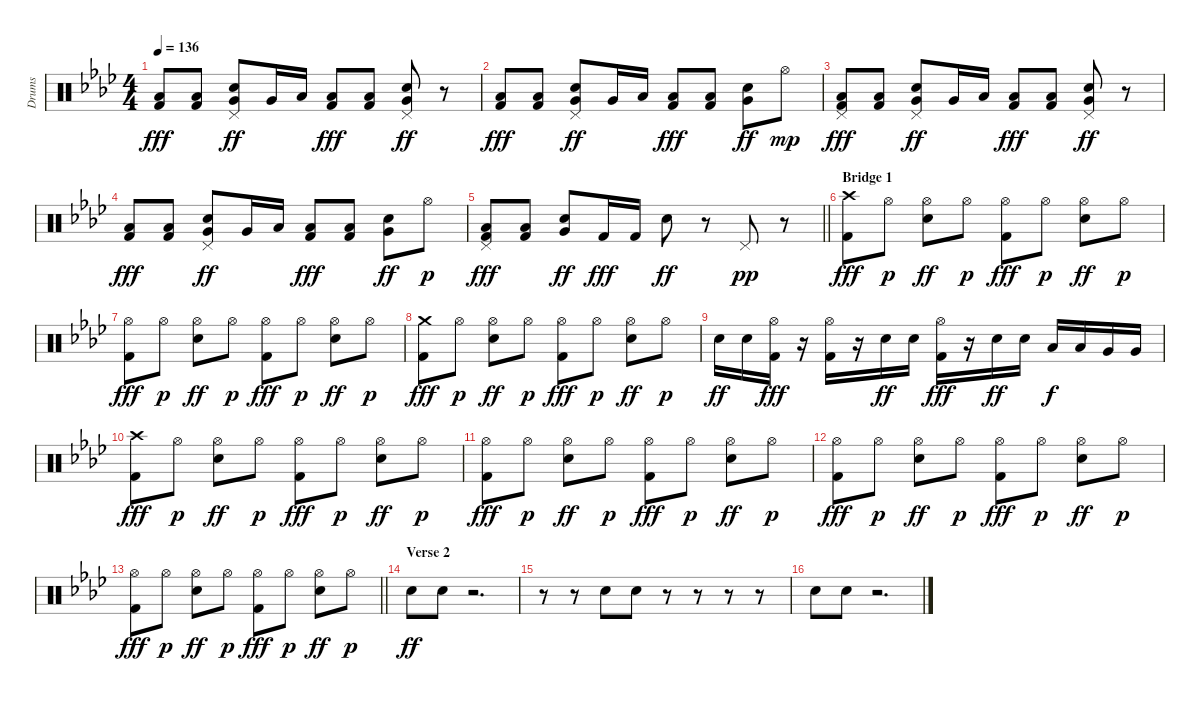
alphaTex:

\track ("Drums" "Drums") {instrument percussion}
\staff {score}
\articulation defaults
\ts (4 4)
\tempo 136
\clef neutral
\ks fminor
("Low Floor Tom (hit)" "Kick (hit) 2").8{dy fff} ("Low Floor Tom (hit)" "Kick (hit) 2").8 ("Pedal Hi-Hat (hit)" "Electric Snare (hit)" "Very Low Tom (hit)").8{dy ff} "Very Low Tom (hit)".16 "Low Tom (hit)".16 ("Low Floor Tom (hit)" "Kick (hit) 2").8{dy fff} ("Low Floor Tom (hit)" "Kick (hit) 2").8 ("Pedal Hi-Hat (hit)" "Electric Snare (hit)" "Very Low Tom (hit)").8{dy ff} r.8 |
("Low Floor Tom (hit)" "Kick (hit) 2").8{dy fff} ("Low Floor Tom (hit)" "Kick (hit) 2").8 ("Pedal Hi-Hat (hit)" "Electric Snare (hit)" "Very Low Tom (hit)").8{dy ff} "Very Low Tom (hit)".16 "Low Tom (hit)".16 ("Low Floor Tom (hit)" "Kick (hit) 2").8{dy fff} ("Low Floor Tom (hit)" "Kick (hit) 2").8 ("Electric Snare (hit)" "Very Low Tom (hit)").8{dy ff} "Hi-Hat (open)".8{dy mp} |
("Pedal Hi-Hat (hit)" "Low Floor Tom (hit)" "Kick (hit) 2").8{dy fff} ("Low Floor Tom (hit)" "Kick (hit) 2").8 ("Pedal Hi-Hat (hit)" "Electric Snare (hit)" "Very Low Tom (hit)").8{dy ff} "Very Low Tom (hit)".16 "Low Tom (hit)".16 ("Low Floor Tom (hit)" "Kick (hit) 2").8{dy fff} ("Low Floor Tom (hit)" "Kick (hit) 2").8 ("Pedal Hi-Hat (hit)" "Electric Snare (hit)" "Very Low Tom (hit)").8{dy ff} r.8 |
("Low Floor Tom (hit)" "Kick (hit) 2").8{dy fff} ("Low Floor Tom (hit)" "Kick (hit) 2").8 ("Pedal Hi-Hat (hit)" "Electric Snare (hit)" "Very Low Tom (hit)").8{dy ff} "Very Low Tom (hit)".16 "Low Tom (hit)".16 ("Low Floor Tom (hit)" "Kick (hit) 2").8{dy fff} ("Low Floor Tom (hit)" "Kick (hit) 2").8 ("Electric Snare (hit)" "Very Low Tom (hit)").8{dy ff} "Hi-Hat (open)".8{dy p} |
\barLineRight lightlight
("Pedal Hi-Hat (hit)" "Low Floor Tom (hit)" "Kick (hit) 2").8{dy fff} ("Low Floor Tom (hit)" "Kick (hit) 2").8 ("Electric Snare (hit)" "Very Low Tom (hit)").8{dy ff} "Kick (hit) 2".16{dy fff} "Kick (hit) 2".16 "Electric Snare (hit)".8{dy ff} r.8 "Pedal Hi-Hat (hit)".8{dy pp} r.8 |
\section ("" "Bridge 1")
("Crash high (hit)" "Kick (hit) 2").8{dy fff} "Hi-Hat (open)".8{dy p} ("Hi-Hat (open)" "Electric Snare (hit)").8{dy ff} "Hi-Hat (open)".8{dy p} ("Hi-Hat (open)" "Kick (hit) 2").8{dy fff} "Hi-Hat (open)".8{dy p} ("Hi-Hat (open)" "Electric Snare (hit)").8{dy ff} "Hi-Hat (open)".8{dy p} |
("Hi-Hat (open)" "Kick (hit) 2").8{dy fff} "Hi-Hat (open)".8{dy p} ("Hi-Hat (open)" "Electric Snare (hit)").8{dy ff} "Hi-Hat (open)".8{dy p} ("Hi-Hat (open)" "Kick (hit) 2").8{dy fff} "Hi-Hat (open)".8{dy p} ("Hi-Hat (open)" "Electric Snare (hit)").8{dy ff} "Hi-Hat (open)".8{dy p} |
("Crash medium (hit)" "Kick (hit) 2").8{dy fff} "Hi-Hat (open)".8{dy p} ("Hi-Hat (open)" "Electric Snare (hit)").8{dy ff} "Hi-Hat (open)".8{dy p} ("Hi-Hat (open)" "Kick (hit) 2").8{dy fff} "Hi-Hat (open)".8{dy p} ("Hi-Hat (open)" "Electric Snare (hit)").8{dy ff} "Hi-Hat (open)".8{dy p} |
"Electric Snare (hit)".16{dy ff} "Electric Snare (hit)".16 ("Hi-Hat (open)" "Kick (hit) 2").16{dy fff} r.16 ("Hi-Hat (open)" "Kick (hit) 2").16 r.16 "Electric Snare (hit)".16{dy ff} "Electric Snare (hit)".16 ("Hi-Hat (open)" "Kick (hit) 2").16{dy fff} r.16 "Electric Snare (hit)".16{dy ff} "Electric Snare (hit)".16 "Low Tom (hit)".16{dy f} "Low Tom (hit)".16 "Very Low Tom (hit)".16 "Very Low Tom (hit)".16 |
("Crash high (hit)" "Kick (hit) 2").8{dy fff} "Hi-Hat (open)".8{dy p} ("Hi-Hat (open)" "Electric Snare (hit)").8{dy ff} "Hi-Hat (open)".8{dy p} ("Hi-Hat (open)" "Kick (hit) 2").8{dy fff} "Hi-Hat (open)".8{dy p} ("Hi-Hat (open)" "Electric Snare (hit)").8{dy ff} "Hi-Hat (open)".8{dy p} |
("Hi-Hat (open)" "Kick (hit) 2").8{dy fff} "Hi-Hat (open)".8{dy p} ("Hi-Hat (open)" "Electric Snare (hit)").8{dy ff} "Hi-Hat (open)".8{dy p} ("Hi-Hat (open)" "Kick (hit) 2").8{dy fff} "Hi-Hat (open)".8{dy p} ("Hi-Hat (open)" "Electric Snare (hit)").8{dy ff} "Hi-Hat (open)".8{dy p} |
("Hi-Hat (open)" "Kick (hit) 2").8{dy fff} "Hi-Hat (open)".8{dy p} ("Hi-Hat (open)" "Electric Snare (hit)").8{dy ff} "Hi-Hat (open)".8{dy p} ("Hi-Hat (open)" "Kick (hit) 2").8{dy fff} "Hi-Hat (open)".8{dy p} ("Hi-Hat (open)" "Electric Snare (hit)").8{dy ff} "Hi-Hat (open)".8{dy p} |
\barLineRight lightlight
("Hi-Hat (open)" "Kick (hit) 2").8{dy fff} "Hi-Hat (open)".8{dy p} ("Hi-Hat (open)" "Electric Snare (hit)").8{dy ff} "Hi-Hat (open)".8{dy p} ("Hi-Hat (open)" "Kick (hit) 2").8{dy fff} "Hi-Hat (open)".8{dy p} ("Hi-Hat (open)" "Electric Snare (hit)").8{dy ff} "Hi-Hat (open)".8{dy p} |
\section ("" "Verse 2")
"Electric Snare (hit)".8{dy ff} "Electric Snare (hit)".8 r.2{d} |
r.8 r.8 "Electric Snare (hit)".8 "Electric Snare (hit)".8 r.8 r.8 r.8 r.8 |
"Electric Snare (hit)".8 "Electric Snare (hit)".8 r.2{d}
